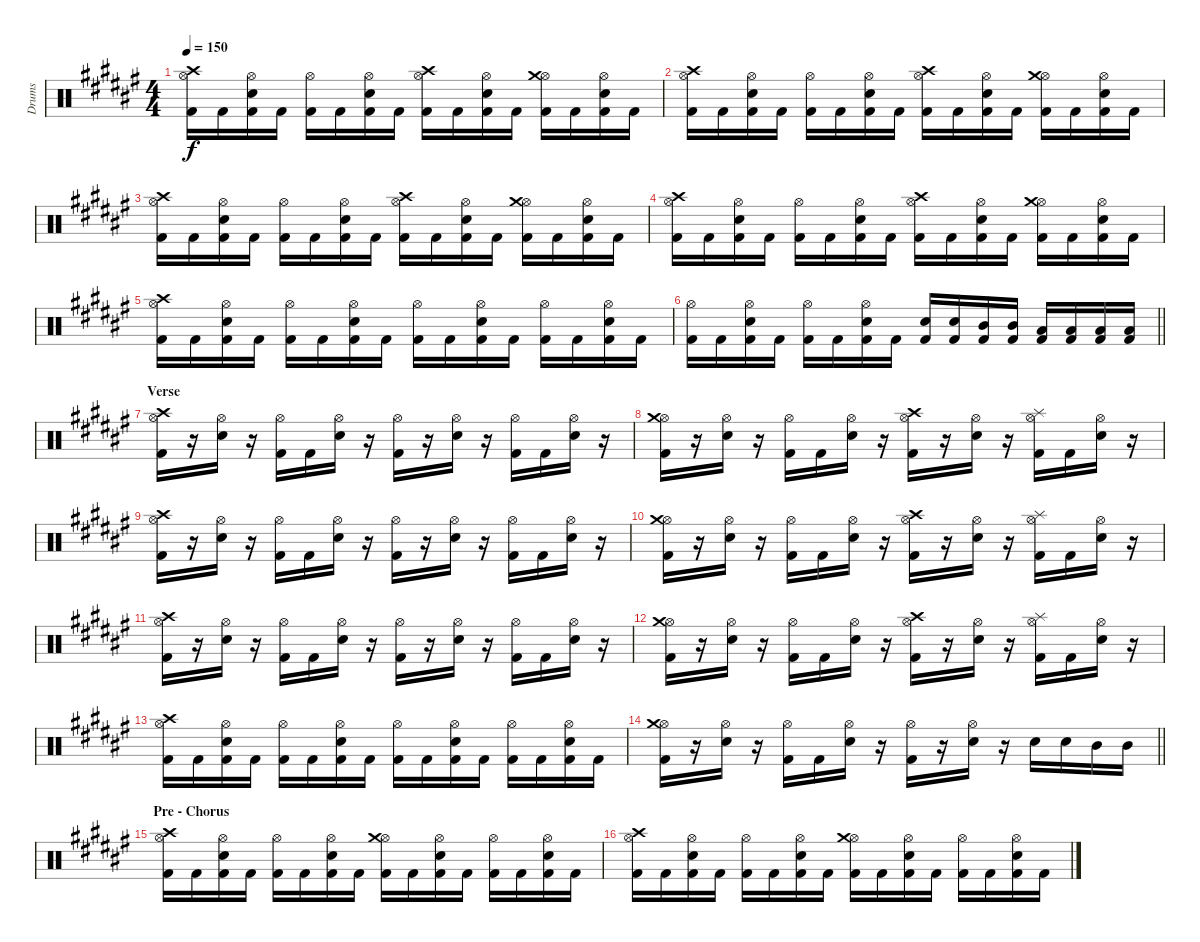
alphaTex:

\track ("Drums" "Drums") {instrument percussion}
\staff {score}
\articulation defaults
\ts (4 4)
\tempo 150
\clef neutral
\ks d#minor
("Kick (hit) 2" "Hi-Hat (open)" "Crash high (hit)").16{dy f} "Kick (hit) 2".16 ("Kick (hit) 2" "Electric Snare (hit)" "Hi-Hat (open)").16 "Kick (hit) 2".16 ("Kick (hit) 2" "Hi-Hat (open)").16 "Kick (hit) 2".16 ("Kick (hit) 2" "Electric Snare (hit)" "Hi-Hat (open)").16 "Kick (hit) 2".16 ("Kick (hit) 2" "Hi-Hat (open)" "Crash high (hit)").16 "Kick (hit) 2".16 ("Kick (hit) 2" "Electric Snare (hit)" "Hi-Hat (open)").16 "Kick (hit) 2".16 ("Kick (hit) 2" "Hi-Hat (open)" "Crash medium (hit)").16 "Kick (hit) 2".16 ("Kick (hit) 2" "Electric Snare (hit)" "Hi-Hat (open)").16 "Kick (hit) 2".16 |
("Kick (hit) 2" "Hi-Hat (open)" "Crash high (hit)").16 "Kick (hit) 2".16 ("Kick (hit) 2" "Electric Snare (hit)" "Hi-Hat (open)").16 "Kick (hit) 2".16 ("Kick (hit) 2" "Hi-Hat (open)").16 "Kick (hit) 2".16 ("Kick (hit) 2" "Electric Snare (hit)" "Hi-Hat (open)").16 "Kick (hit) 2".16 ("Kick (hit) 2" "Hi-Hat (open)" "Crash high (hit)").16 "Kick (hit) 2".16 ("Kick (hit) 2" "Electric Snare (hit)" "Hi-Hat (open)").16 "Kick (hit) 2".16 ("Kick (hit) 2" "Hi-Hat (open)" "Crash medium (hit)").16 "Kick (hit) 2".16 ("Kick (hit) 2" "Electric Snare (hit)" "Hi-Hat (open)").16 "Kick (hit) 2".16 |
("Kick (hit) 2" "Hi-Hat (open)" "Crash high (hit)").16 "Kick (hit) 2".16 ("Kick (hit) 2" "Electric Snare (hit)" "Hi-Hat (open)").16 "Kick (hit) 2".16 ("Kick (hit) 2" "Hi-Hat (open)").16 "Kick (hit) 2".16 ("Kick (hit) 2" "Electric Snare (hit)" "Hi-Hat (open)").16 "Kick (hit) 2".16 ("Kick (hit) 2" "Hi-Hat (open)" "Crash high (hit)").16 "Kick (hit) 2".16 ("Kick (hit) 2" "Electric Snare (hit)" "Hi-Hat (open)").16 "Kick (hit) 2".16 ("Kick (hit) 2" "Hi-Hat (open)" "Crash medium (hit)").16 "Kick (hit) 2".16 ("Kick (hit) 2" "Electric Snare (hit)" "Hi-Hat (open)").16 "Kick (hit) 2".16 |
("Kick (hit) 2" "Hi-Hat (open)" "Crash high (hit)").16 "Kick (hit) 2".16 ("Kick (hit) 2" "Electric Snare (hit)" "Hi-Hat (open)").16 "Kick (hit) 2".16 ("Kick (hit) 2" "Hi-Hat (open)").16 "Kick (hit) 2".16 ("Kick (hit) 2" "Electric Snare (hit)" "Hi-Hat (open)").16 "Kick (hit) 2".16 ("Kick (hit) 2" "Hi-Hat (open)" "Crash high (hit)").16 "Kick (hit) 2".16 ("Kick (hit) 2" "Electric Snare (hit)" "Hi-Hat (open)").16 "Kick (hit) 2".16 ("Kick (hit) 2" "Hi-Hat (open)" "Crash medium (hit)").16 "Kick (hit) 2".16 ("Kick (hit) 2" "Electric Snare (hit)" "Hi-Hat (open)").16 "Kick (hit) 2".16 |
("Kick (hit) 2" "Hi-Hat (open)" "Crash high (hit)").16 "Kick (hit) 2".16 ("Kick (hit) 2" "Electric Snare (hit)" "Hi-Hat (open)").16 "Kick (hit) 2".16 ("Kick (hit) 2" "Hi-Hat (open)").16 "Kick (hit) 2".16 ("Kick (hit) 2" "Electric Snare (hit)" "Hi-Hat (open)").16 "Kick (hit) 2".16 ("Kick (hit) 2" "Hi-Hat (open)").16 "Kick (hit) 2".16 ("Kick (hit) 2" "Electric Snare (hit)" "Hi-Hat (open)").16 "Kick (hit) 2".16 ("Kick (hit) 2" "Hi-Hat (open)").16 "Kick (hit) 2".16 ("Kick (hit) 2" "Electric Snare (hit)" "Hi-Hat (open)").16 "Kick (hit) 2".16 |
\barLineRight lightlight
("Kick (hit) 2" "Hi-Hat (open)").16 "Kick (hit) 2".16 ("Kick (hit) 2" "Electric Snare (hit)" "Hi-Hat (open)").16 "Kick (hit) 2".16 ("Kick (hit) 2" "Hi-Hat (open)").16 "Kick (hit) 2".16 ("Kick (hit) 2" "Electric Snare (hit)" "Hi-Hat (open)").16 "Kick (hit) 2".16 ("Kick (hit) 2" "Electric Snare (hit)").16 ("Kick (hit) 2" "Electric Snare (hit)").16 ("Kick (hit) 2" "Mid Tom (hit)").16 ("Kick (hit) 2" "Mid Tom (hit)").16 ("Kick (hit) 2" "Low Tom (hit)").16 ("Kick (hit) 2" "Low Tom (hit)").16 ("Kick (hit) 2" "Low Floor Tom (hit)").16 ("Kick (hit) 2" "Low Floor Tom (hit)").16 |
\section ("" "Verse")
("Kick (hit) 2" "Hi-Hat (open)" "Crash high (hit)").16 r.16 ("Electric Snare (hit)" "Hi-Hat (open)").16 r.16 ("Kick (hit) 2" "Hi-Hat (open)").16 "Kick (hit) 2".16 ("Electric Snare (hit)" "Hi-Hat (open)").16 r.16 ("Kick (hit) 2" "Hi-Hat (open)").16 r.16 ("Electric Snare (hit)" "Hi-Hat (open)").16 r.16 ("Kick (hit) 2" "Hi-Hat (open)").16 "Kick (hit) 2".16 ("Electric Snare (hit)" "Hi-Hat (open)").16 r.16 |
("Kick (hit) 2" "Hi-Hat (open)" "Crash medium (hit)").16 r.16 ("Electric Snare (hit)" "Hi-Hat (open)").16 r.16 ("Kick (hit) 2" "Hi-Hat (open)").16 "Kick (hit) 2".16 ("Electric Snare (hit)" "Hi-Hat (open)").16 r.16 ("Kick (hit) 2" "Hi-Hat (open)" "Crash high (hit)").16 r.16 ("Electric Snare (hit)" "Hi-Hat (open)").16 r.16 ("Kick (hit) 2" "Hi-Hat (open)" "Splash (hit)").16 "Kick (hit) 2".16 ("Electric Snare (hit)" "Hi-Hat (open)").16 r.16 |
("Kick (hit) 2" "Hi-Hat (open)" "Crash high (hit)").16 r.16 ("Electric Snare (hit)" "Hi-Hat (open)").16 r.16 ("Kick (hit) 2" "Hi-Hat (open)").16 "Kick (hit) 2".16 ("Electric Snare (hit)" "Hi-Hat (open)").16 r.16 ("Kick (hit) 2" "Hi-Hat (open)").16 r.16 ("Electric Snare (hit)" "Hi-Hat (open)").16 r.16 ("Kick (hit) 2" "Hi-Hat (open)").16 "Kick (hit) 2".16 ("Electric Snare (hit)" "Hi-Hat (open)").16 r.16 |
("Kick (hit) 2" "Hi-Hat (open)" "Crash medium (hit)").16 r.16 ("Electric Snare (hit)" "Hi-Hat (open)").16 r.16 ("Kick (hit) 2" "Hi-Hat (open)").16 "Kick (hit) 2".16 ("Electric Snare (hit)" "Hi-Hat (open)").16 r.16 ("Kick (hit) 2" "Hi-Hat (open)" "Crash high (hit)").16 r.16 ("Electric Snare (hit)" "Hi-Hat (open)").16 r.16 ("Kick (hit) 2" "Hi-Hat (open)" "Splash (hit)").16 "Kick (hit) 2".16 ("Electric Snare (hit)" "Hi-Hat (open)").16 r.16 |
("Kick (hit) 2" "Hi-Hat (open)" "Crash high (hit)").16 r.16 ("Electric Snare (hit)" "Hi-Hat (open)").16 r.16 ("Kick (hit) 2" "Hi-Hat (open)").16 "Kick (hit) 2".16 ("Electric Snare (hit)" "Hi-Hat (open)").16 r.16 ("Kick (hit) 2" "Hi-Hat (open)").16 r.16 ("Electric Snare (hit)" "Hi-Hat (open)").16 r.16 ("Kick (hit) 2" "Hi-Hat (open)").16 "Kick (hit) 2".16 ("Electric Snare (hit)" "Hi-Hat (open)").16 r.16 |
("Kick (hit) 2" "Hi-Hat (open)" "Crash medium (hit)").16 r.16 ("Electric Snare (hit)" "Hi-Hat (open)").16 r.16 ("Kick (hit) 2" "Hi-Hat (open)").16 "Kick (hit) 2".16 ("Electric Snare (hit)" "Hi-Hat (open)").16 r.16 ("Kick (hit) 2" "Hi-Hat (open)" "Crash high (hit)").16 r.16 ("Electric Snare (hit)" "Hi-Hat (open)").16 r.16 ("Kick (hit) 2" "Hi-Hat (open)" "Splash (hit)").16 "Kick (hit) 2".16 ("Electric Snare (hit)" "Hi-Hat (open)").16 r.16 |
("Kick (hit) 2" "Hi-Hat (open)" "Crash high (hit)").16 "Kick (hit) 2".16 ("Kick (hit) 2" "Electric Snare (hit)" "Hi-Hat (open)").16 "Kick (hit) 2".16 ("Kick (hit) 2" "Hi-Hat (open)").16 "Kick (hit) 2".16 ("Kick (hit) 2" "Electric Snare (hit)" "Hi-Hat (open)").16 "Kick (hit) 2".16 ("Kick (hit) 2" "Hi-Hat (open)").16 "Kick (hit) 2".16 ("Kick (hit) 2" "Electric Snare (hit)" "Hi-Hat (open)").16 "Kick (hit) 2".16 ("Kick (hit) 2" "Hi-Hat (open)").16 "Kick (hit) 2".16 ("Kick (hit) 2" "Electric Snare (hit)" "Hi-Hat (open)").16 "Kick (hit) 2".16 |
\barLineRight lightlight
("Kick (hit) 2" "Hi-Hat (open)" "Crash medium (hit)").16 r.16 ("Electric Snare (hit)" "Hi-Hat (open)").16 r.16 ("Kick (hit) 2" "Hi-Hat (open)").16 "Kick (hit) 2".16 ("Electric Snare (hit)" "Hi-Hat (open)").16 r.16 ("Kick (hit) 2" "Hi-Hat (open)").16 r.16 ("Electric Snare (hit)" "Hi-Hat (open)").16 r.16 "Electric Snare (hit)".16 "Electric Snare (hit)".16 "Mid Tom (hit)".16 "Mid Tom (hit)".16 |
\section ("" "Pre - Chorus")
("Kick (hit) 2" "Hi-Hat (open)" "Crash high (hit)").16 "Kick (hit) 2".16 ("Kick (hit) 2" "Electric Snare (hit)" "Hi-Hat (open)").16 "Kick (hit) 2".16 ("Kick (hit) 2" "Hi-Hat (open)").16 "Kick (hit) 2".16 ("Kick (hit) 2" "Electric Snare (hit)" "Hi-Hat (open)").16 "Kick (hit) 2".16 ("Kick (hit) 2" "Hi-Hat (open)" "Crash medium (hit)").16 "Kick (hit) 2".16 ("Kick (hit) 2" "Electric Snare (hit)" "Hi-Hat (open)").16 "Kick (hit) 2".16 ("Kick (hit) 2" "Hi-Hat (open)").16 "Kick (hit) 2".16 ("Kick (hit) 2" "Electric Snare (hit)" "Hi-Hat (open)").16 "Kick (hit) 2".16 |
("Kick (hit) 2" "Hi-Hat (open)" "Crash high (hit)").16 "Kick (hit) 2".16 ("Kick (hit) 2" "Electric Snare (hit)" "Hi-Hat (open)").16 "Kick (hit) 2".16 ("Kick (hit) 2" "Hi-Hat (open)").16 "Kick (hit) 2".16 ("Kick (hit) 2" "Electric Snare (hit)" "Hi-Hat (open)").16 "Kick (hit) 2".16 ("Kick (hit) 2" "Hi-Hat (open)" "Crash medium (hit)").16 "Kick (hit) 2".16 ("Kick (hit) 2" "Electric Snare (hit)" "Hi-Hat (open)").16 "Kick (hit) 2".16 ("Kick (hit) 2" "Hi-Hat (open)").16 "Kick (hit) 2".16 ("Kick (hit) 2" "Electric Snare (hit)" "Hi-Hat (open)").16 "Kick (hit) 2".16
